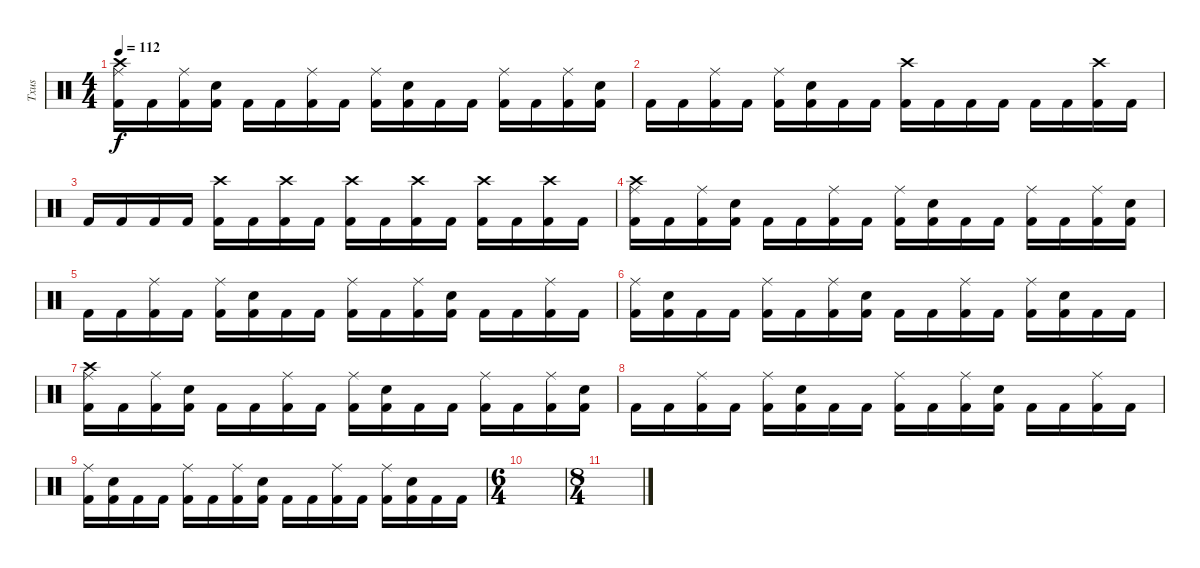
\track ("Txus" "Txus") {instrument percussion}
\staff {score}
\articulation defaults
\ts (4 4)
\tempo 112
\clef neutral
\ks c
("Kick (hit) 2" "Ride (middle)" "Crash high (hit)").16{dy f volume 10} "Kick (hit) 2".16 ("Kick (hit) 2" "Ride (middle)").16 ("Kick (hit) 2" "Electric Snare (hit)").16 "Kick (hit) 2".16 "Kick (hit) 2".16 ("Kick (hit) 2" "Ride (middle)").16 "Kick (hit) 2".16 ("Kick (hit) 2" "Ride (middle)").16 ("Kick (hit) 2" "Electric Snare (hit)").16 "Kick (hit) 2".16 "Kick (hit) 2".16 ("Kick (hit) 2" "Ride (middle)").16 "Kick (hit) 2".16 ("Kick (hit) 2" "Ride (middle)").16 ("Kick (hit) 2" "Electric Snare (hit)").16 |
"Kick (hit) 2".16 "Kick (hit) 2".16 ("Kick (hit) 2" "Ride (middle)").16 "Kick (hit) 2".16 ("Kick (hit) 2" "Ride (middle)").16 ("Kick (hit) 2" "Electric Snare (hit)").16 "Kick (hit) 2".16 "Kick (hit) 2".16 ("Kick (hit) 2" "Crash high (hit)").16 "Kick (hit) 2".16 "Kick (hit) 2".16 "Kick (hit) 2".16 "Kick (hit) 2".16 "Kick (hit) 2".16 ("Kick (hit) 2" "Crash high (hit)").16 "Kick (hit) 2".16 |
"Kick (hit) 2".16 "Kick (hit) 2".16 "Kick (hit) 2".16 "Kick (hit) 2".16{volume 8} ("Kick (hit) 2" "Crash high (hit)").16 "Kick (hit) 2".16 ("Kick (hit) 2" "Crash high (hit)").16 "Kick (hit) 2".16 ("Kick (hit) 2" "Crash high (hit)").16 "Kick (hit) 2".16 ("Kick (hit) 2" "Crash high (hit)").16 "Kick (hit) 2".16 ("Kick (hit) 2" "Crash high (hit)").16 "Kick (hit) 2".16 ("Kick (hit) 2" "Crash high (hit)").16 "Kick (hit) 2".16 |
("Kick (hit) 2" "Ride (middle)" "Crash high (hit)").16{volume 8} "Kick (hit) 2".16 ("Kick (hit) 2" "Ride (middle)").16 ("Kick (hit) 2" "Electric Snare (hit)").16 "Kick (hit) 2".16 "Kick (hit) 2".16 ("Kick (hit) 2" "Ride (middle)").16 "Kick (hit) 2".16 ("Kick (hit) 2" "Ride (middle)").16 ("Kick (hit) 2" "Electric Snare (hit)").16 "Kick (hit) 2".16 "Kick (hit) 2".16 ("Kick (hit) 2" "Ride (middle)").16 "Kick (hit) 2".16 ("Kick (hit) 2" "Ride (middle)").16 ("Kick (hit) 2" "Electric Snare (hit)").16 |
"Kick (hit) 2".16 "Kick (hit) 2".16 ("Kick (hit) 2" "Ride (middle)").16 "Kick (hit) 2".16 ("Kick (hit) 2" "Ride (middle)").16 ("Kick (hit) 2" "Electric Snare (hit)").16 "Kick (hit) 2".16 "Kick (hit) 2".16 ("Kick (hit) 2" "Ride (middle)").16 "Kick (hit) 2".16 ("Kick (hit) 2" "Ride (middle)").16 ("Kick (hit) 2" "Electric Snare (hit)").16 "Kick (hit) 2".16 "Kick (hit) 2".16 ("Kick (hit) 2" "Ride (middle)").16 "Kick (hit) 2".16 |
("Kick (hit) 2" "Ride (middle)").16{volume 0} ("Kick (hit) 2" "Electric Snare (hit)").16 "Kick (hit) 2".16 "Kick (hit) 2".16 ("Kick (hit) 2" "Ride (middle)").16 "Kick (hit) 2".16 ("Kick (hit) 2" "Ride (middle)").16 ("Kick (hit) 2" "Electric Snare (hit)").16 "Kick (hit) 2".16 "Kick (hit) 2".16 ("Kick (hit) 2" "Ride (middle)").16 "Kick (hit) 2".16 ("Kick (hit) 2" "Ride (middle)").16 ("Kick (hit) 2" "Electric Snare (hit)").16 "Kick (hit) 2".16 "Kick (hit) 2".16 |
("Kick (hit) 2" "Ride (middle)" "Crash high (hit)").16 "Kick (hit) 2".16 ("Kick (hit) 2" "Ride (middle)").16 ("Kick (hit) 2" "Electric Snare (hit)").16 "Kick (hit) 2".16 "Kick (hit) 2".16 ("Kick (hit) 2" "Ride (middle)").16 "Kick (hit) 2".16 ("Kick (hit) 2" "Ride (middle)").16 ("Kick (hit) 2" "Electric Snare (hit)").16 "Kick (hit) 2".16 "Kick (hit) 2".16 ("Kick (hit) 2" "Ride (middle)").16 "Kick (hit) 2".16 ("Kick (hit) 2" "Ride (middle)").16 ("Kick (hit) 2" "Electric Snare (hit)").16 |
"Kick (hit) 2".16 "Kick (hit) 2".16 ("Kick (hit) 2" "Ride (middle)").16 "Kick (hit) 2".16 ("Kick (hit) 2" "Ride (middle)").16 ("Kick (hit) 2" "Electric Snare (hit)").16 "Kick (hit) 2".16 "Kick (hit) 2".16 ("Kick (hit) 2" "Ride (middle)").16 "Kick (hit) 2".16 ("Kick (hit) 2" "Ride (middle)").16 ("Kick (hit) 2" "Electric Snare (hit)").16 "Kick (hit) 2".16 "Kick (hit) 2".16 ("Kick (hit) 2" "Ride (middle)").16 "Kick (hit) 2".16 |
("Kick (hit) 2" "Ride (middle)").16 ("Kick (hit) 2" "Electric Snare (hit)").16 "Kick (hit) 2".16 "Kick (hit) 2".16 ("Kick (hit) 2" "Ride (middle)").16 "Kick (hit) 2".16 ("Kick (hit) 2" "Ride (middle)").16 ("Kick (hit) 2" "Electric Snare (hit)").16 "Kick (hit) 2".16 "Kick (hit) 2".16 ("Kick (hit) 2" "Ride (middle)").16 "Kick (hit) 2".16 ("Kick (hit) 2" "Ride (middle)").16 ("Kick (hit) 2" "Electric Snare (hit)").16 "Kick (hit) 2".16 "Kick (hit) 2".16 |
\ts (6 4)
|
\ts (8 4)
